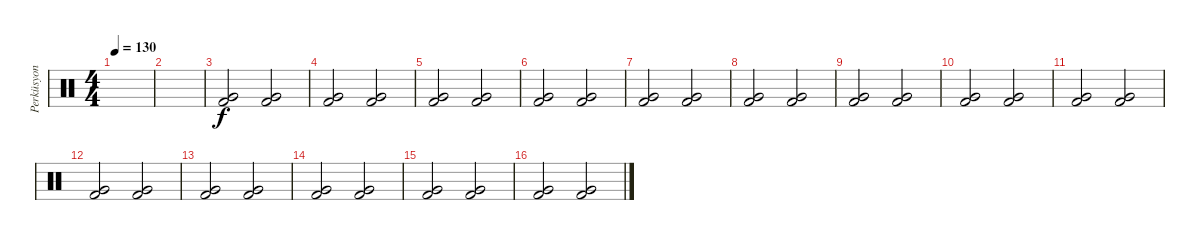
\track ("Perküsyon" "Perküsyon") {instrument percussion}
\staff {score}
\articulation defaults
\ts (4 4)
\tempo 130
\clef neutral
\ks c
|
|
("Very Low Tom (hit)" "Kick (hit) 2").2 ("Very Low Tom (hit)" "Kick (hit) 2").2 |
("Very Low Tom (hit)" "Kick (hit) 2").2 ("Very Low Tom (hit)" "Kick (hit) 2").2 |
("Very Low Tom (hit)" "Kick (hit) 2").2 ("Very Low Tom (hit)" "Kick (hit) 2").2 |
("Very Low Tom (hit)" "Kick (hit) 2").2 ("Very Low Tom (hit)" "Kick (hit) 2").2 |
("Very Low Tom (hit)" "Kick (hit) 2").2 ("Very Low Tom (hit)" "Kick (hit) 2").2 |
("Very Low Tom (hit)" "Kick (hit) 2").2 ("Very Low Tom (hit)" "Kick (hit) 2").2 |
("Very Low Tom (hit)" "Kick (hit) 2").2 ("Very Low Tom (hit)" "Kick (hit) 2").2 |
("Very Low Tom (hit)" "Kick (hit) 2").2 ("Very Low Tom (hit)" "Kick (hit) 2").2 |
("Very Low Tom (hit)" "Kick (hit) 2").2 ("Very Low Tom (hit)" "Kick (hit) 2").2 |
("Very Low Tom (hit)" "Kick (hit) 2").2 ("Very Low Tom (hit)" "Kick (hit) 2").2 |
("Very Low Tom (hit)" "Kick (hit) 2").2 ("Very Low Tom (hit)" "Kick (hit) 2").2 |
("Very Low Tom (hit)" "Kick (hit) 2").2 ("Very Low Tom (hit)" "Kick (hit) 2").2 |
("Very Low Tom (hit)" "Kick (hit) 2").2 ("Very Low Tom (hit)" "Kick (hit) 2").2 |
("Very Low Tom (hit)" "Kick (hit) 2").2 ("Very Low Tom (hit)" "Kick (hit) 2").2
